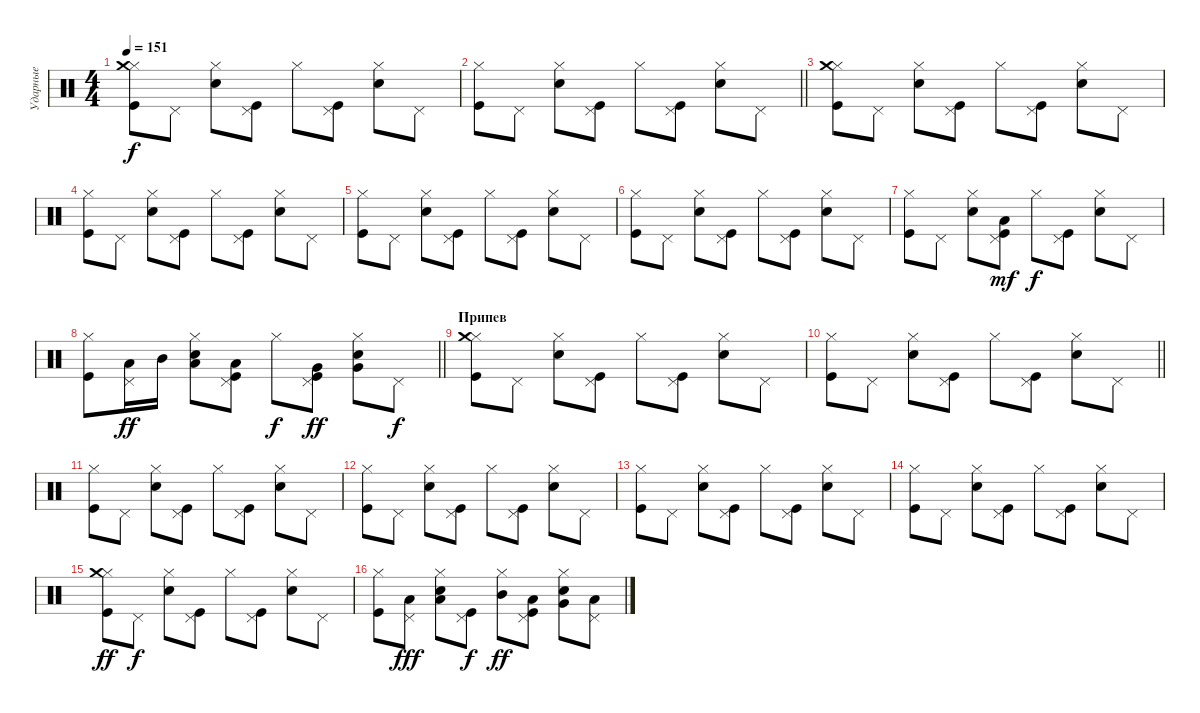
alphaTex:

\track ("Ударные" "Ударные") {instrument percussion}
\staff {score}
\articulation defaults
\ts (4 4)
\tempo 151
\clef neutral
\ks c
("Hi-Hat (closed)" "Kick (hit)" "Crash medium (hit)").8{dy f} "Pedal Hi-Hat (hit)".8 ("Hi-Hat (closed)" "Snare (hit) 2").8 ("Pedal Hi-Hat (hit)" "Kick (hit)").8 "Hi-Hat (closed)".8 ("Pedal Hi-Hat (hit)" "Kick (hit)").8 ("Hi-Hat (closed)" "Snare (hit) 2").8 "Pedal Hi-Hat (hit)".8 |
\barLineRight lightlight
("Hi-Hat (closed)" "Kick (hit)").8 "Pedal Hi-Hat (hit)".8 ("Hi-Hat (closed)" "Snare (hit) 2").8 ("Pedal Hi-Hat (hit)" "Kick (hit)").8 "Hi-Hat (closed)".8 ("Pedal Hi-Hat (hit)" "Kick (hit)").8 ("Hi-Hat (closed)" "Snare (hit) 2").8 "Pedal Hi-Hat (hit)".8 |
("Hi-Hat (closed)" "Kick (hit)" "Crash medium (hit)").8 "Pedal Hi-Hat (hit)".8 ("Hi-Hat (closed)" "Snare (hit) 2").8 ("Pedal Hi-Hat (hit)" "Kick (hit)").8 "Hi-Hat (closed)".8 ("Pedal Hi-Hat (hit)" "Kick (hit)").8 ("Hi-Hat (closed)" "Snare (hit) 2").8 "Pedal Hi-Hat (hit)".8 |
("Hi-Hat (closed)" "Kick (hit)").8 "Pedal Hi-Hat (hit)".8 ("Hi-Hat (closed)" "Snare (hit) 2").8 ("Pedal Hi-Hat (hit)" "Kick (hit)").8 "Hi-Hat (closed)".8 ("Pedal Hi-Hat (hit)" "Kick (hit)").8 ("Hi-Hat (closed)" "Snare (hit) 2").8 "Pedal Hi-Hat (hit)".8 |
("Hi-Hat (closed)" "Kick (hit)").8 "Pedal Hi-Hat (hit)".8 ("Hi-Hat (closed)" "Snare (hit) 2").8 ("Pedal Hi-Hat (hit)" "Kick (hit)").8 "Hi-Hat (closed)".8 ("Pedal Hi-Hat (hit)" "Kick (hit)").8 ("Hi-Hat (closed)" "Snare (hit) 2").8 "Pedal Hi-Hat (hit)".8 |
("Hi-Hat (closed)" "Kick (hit)").8 "Pedal Hi-Hat (hit)".8 ("Hi-Hat (closed)" "Snare (hit) 2").8 ("Pedal Hi-Hat (hit)" "Kick (hit)").8 "Hi-Hat (closed)".8 ("Pedal Hi-Hat (hit)" "Kick (hit)").8 ("Hi-Hat (closed)" "Snare (hit) 2").8 "Pedal Hi-Hat (hit)".8 |
("Hi-Hat (closed)" "Kick (hit)").8 "Pedal Hi-Hat (hit)".8 ("Hi-Hat (closed)" "Snare (hit) 2").8 ("Pedal Hi-Hat (hit)" "Kick (hit)" "Low Floor Tom (hit)").8{dy mf} "Hi-Hat (closed)".8{dy f} ("Pedal Hi-Hat (hit)" "Kick (hit)").8 ("Hi-Hat (closed)" "Snare (hit) 2").8 "Pedal Hi-Hat (hit)".8 |
\barLineRight lightlight
("Hi-Hat (closed)" "Kick (hit)").8 ("Pedal Hi-Hat (hit)" "Low Tom (hit)").16{dy ff} "Mid Tom (hit)".16 ("Hi-Hat (closed)" "Snare (hit) 2" "Low Tom (hit)").8 ("Pedal Hi-Hat (hit)" "Kick (hit)" "Low Floor Tom (hit)").8 "Hi-Hat (closed)".8{dy f} ("Pedal Hi-Hat (hit)" "Kick (hit)" "Very Low Tom (hit)").8{dy ff} ("Hi-Hat (closed)" "Snare (hit) 2" "Very Low Tom (hit)").8 "Pedal Hi-Hat (hit)".8{dy f} |
\section ("" "Припев")
("Hi-Hat (closed)" "Kick (hit)" "Crash medium (hit)").8 "Pedal Hi-Hat (hit)".8 ("Hi-Hat (closed)" "Snare (hit) 2").8 ("Pedal Hi-Hat (hit)" "Kick (hit)").8 "Hi-Hat (closed)".8 ("Pedal Hi-Hat (hit)" "Kick (hit)").8 ("Hi-Hat (closed)" "Snare (hit) 2").8 "Pedal Hi-Hat (hit)".8 |
\barLineRight lightlight
("Hi-Hat (closed)" "Kick (hit)").8 "Pedal Hi-Hat (hit)".8 ("Hi-Hat (closed)" "Snare (hit) 2").8 ("Pedal Hi-Hat (hit)" "Kick (hit)").8 "Hi-Hat (closed)".8 ("Pedal Hi-Hat (hit)" "Kick (hit)").8 ("Hi-Hat (closed)" "Snare (hit) 2").8 "Pedal Hi-Hat (hit)".8 |
("Hi-Hat (closed)" "Kick (hit)").8 "Pedal Hi-Hat (hit)".8 ("Hi-Hat (closed)" "Snare (hit) 2").8 ("Pedal Hi-Hat (hit)" "Kick (hit)").8 "Hi-Hat (closed)".8 ("Pedal Hi-Hat (hit)" "Kick (hit)").8 ("Hi-Hat (closed)" "Snare (hit) 2").8 "Pedal Hi-Hat (hit)".8 |
("Hi-Hat (closed)" "Kick (hit)").8 "Pedal Hi-Hat (hit)".8 ("Hi-Hat (closed)" "Snare (hit) 2").8 ("Pedal Hi-Hat (hit)" "Kick (hit)").8 "Hi-Hat (closed)".8 ("Pedal Hi-Hat (hit)" "Kick (hit)").8 ("Hi-Hat (closed)" "Snare (hit) 2").8 "Pedal Hi-Hat (hit)".8 |
("Hi-Hat (closed)" "Kick (hit)").8 "Pedal Hi-Hat (hit)".8 ("Hi-Hat (closed)" "Snare (hit) 2").8 ("Pedal Hi-Hat (hit)" "Kick (hit)").8 "Hi-Hat (closed)".8 ("Pedal Hi-Hat (hit)" "Kick (hit)").8 ("Hi-Hat (closed)" "Snare (hit) 2").8 "Pedal Hi-Hat (hit)".8 |
("Hi-Hat (closed)" "Kick (hit)").8 "Pedal Hi-Hat (hit)".8 ("Hi-Hat (closed)" "Snare (hit) 2").8 ("Pedal Hi-Hat (hit)" "Kick (hit)").8 "Hi-Hat (closed)".8 ("Pedal Hi-Hat (hit)" "Kick (hit)").8 ("Hi-Hat (closed)" "Snare (hit) 2").8 "Pedal Hi-Hat (hit)".8 |
("Hi-Hat (closed)" "Kick (hit)" "Crash medium (hit)").8{dy ff} "Pedal Hi-Hat (hit)".8{dy f} ("Hi-Hat (closed)" "Snare (hit) 2").8 ("Pedal Hi-Hat (hit)" "Kick (hit)").8 "Hi-Hat (closed)".8 ("Pedal Hi-Hat (hit)" "Kick (hit)").8 ("Hi-Hat (closed)" "Snare (hit) 2").8 "Pedal Hi-Hat (hit)".8 |
("Hi-Hat (closed)" "Kick (hit)").8 ("Pedal Hi-Hat (hit)" "Low Floor Tom (hit)").8{dy fff} ("Hi-Hat (closed)" "Snare (hit) 2" "Low Floor Tom (hit)").8 ("Pedal Hi-Hat (hit)" "Kick (hit)").8{dy f} ("Hi-Hat (closed)" "Mid Tom (hit)").8{dy ff} ("Pedal Hi-Hat (hit)" "Kick (hit)" "Low Tom (hit)").8 ("Hi-Hat (closed)" "Snare (hit) 2" "Very Low Tom (hit)").8 ("Pedal Hi-Hat (hit)" "Low Tom (hit)").8
